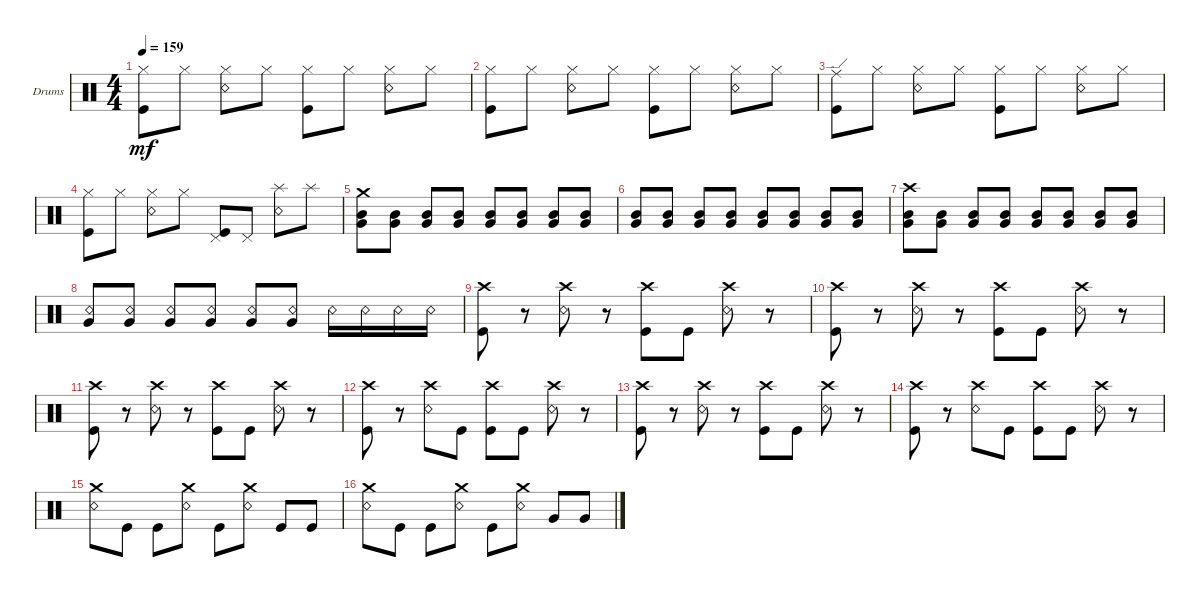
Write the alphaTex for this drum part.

\defaultSystemsLayout 4
\bracketExtendMode groupsimilarinstruments
\firstSystemTrackNameOrientation horizontal
\otherSystemsTrackNameOrientation horizontal
\track ("Drumkit" "Drums") {instrument percussion}
\staff {score}
\articulation defaults
\ts (4 4)
\tempo 159
\clef neutral
\ks c
("Hi-Hat (closed)" "Kick (hit)").8{dy mf} "Hi-Hat (closed)".8 ("Hi-Hat (closed)" "Snare (rim shot)").8 "Hi-Hat (closed)".8 ("Hi-Hat (closed)" "Kick (hit)").8 "Hi-Hat (closed)".8 ("Hi-Hat (closed)" "Snare (rim shot)").8 "Hi-Hat (closed)".8 |
("Hi-Hat (closed)" "Kick (hit)").8 "Hi-Hat (closed)".8 ("Hi-Hat (closed)" "Snare (rim shot)").8 "Hi-Hat (closed)".8 ("Hi-Hat (closed)" "Kick (hit)").8 "Hi-Hat (closed)".8 ("Hi-Hat (closed)" "Snare (rim shot)").8 "Hi-Hat (closed)".8 |
("Ride (edge)" "Kick (hit)").8 "Hi-Hat (closed)".8 ("Hi-Hat (closed)" "Snare (rim shot)").8 "Hi-Hat (closed)".8 ("Hi-Hat (closed)" "Kick (hit)").8 "Hi-Hat (closed)".8 ("Hi-Hat (closed)" "Snare (rim shot)").8 "Hi-Hat (closed)".8 |
("Hi-Hat (closed)" "Kick (hit)").8 "Hi-Hat (closed)".8 ("Hi-Hat (closed)" "Snare (rim shot)").8 "Hi-Hat (closed)".8 ("Kick (hit)" "Pedal Hi-Hat (hit)").8 "Pedal Hi-Hat (hit)".8 ("Snare (rim shot)" "Splash (hit)").8 "Splash (hit)".8 |
("Very Low Tom (hit)" "Mid Tom (hit)" "Crash medium (hit)").8 ("Very Low Tom (hit)" "Mid Tom (hit)").8 ("Very Low Tom (hit)" "Mid Tom (hit)").8 ("Very Low Tom (hit)" "Mid Tom (hit)").8 ("Very Low Tom (hit)" "Mid Tom (hit)").8 ("Very Low Tom (hit)" "Mid Tom (hit)").8 ("Very Low Tom (hit)" "Mid Tom (hit)").8 ("Very Low Tom (hit)" "Mid Tom (hit)").8 |
("Very Low Tom (hit)" "Mid Tom (hit)").8 ("Very Low Tom (hit)" "Mid Tom (hit)").8 ("Very Low Tom (hit)" "Mid Tom (hit)").8 ("Very Low Tom (hit)" "Mid Tom (hit)").8 ("Very Low Tom (hit)" "Mid Tom (hit)").8 ("Very Low Tom (hit)" "Mid Tom (hit)").8 ("Very Low Tom (hit)" "Mid Tom (hit)").8 ("Very Low Tom (hit)" "Mid Tom (hit)").8 |
("Very Low Tom (hit)" "Mid Tom (hit)" "Crash high (hit)").8 ("Very Low Tom (hit)" "Mid Tom (hit)").8 ("Very Low Tom (hit)" "Mid Tom (hit)").8 ("Very Low Tom (hit)" "Mid Tom (hit)").8 ("Very Low Tom (hit)" "Mid Tom (hit)").8 ("Very Low Tom (hit)" "Mid Tom (hit)").8 ("Very Low Tom (hit)" "Mid Tom (hit)").8 ("Very Low Tom (hit)" "Mid Tom (hit)").8 |
("Very Low Tom (hit)" "Snare (rim shot)").8 ("Very Low Tom (hit)" "Snare (rim shot)").8 ("Very Low Tom (hit)" "Snare (rim shot)").8 ("Very Low Tom (hit)" "Snare (rim shot)").8 ("Very Low Tom (hit)" "Snare (rim shot)").8 ("Very Low Tom (hit)" "Snare (rim shot)").8 "Snare (rim shot)".16 "Snare (rim shot)".16 "Snare (rim shot)".16 "Snare (rim shot)".16 |
("Crash high (hit)" "Kick (hit)").8 r.8 ("Crash high (hit)" "Snare (rim shot)").8 r.8 ("Crash high (hit)" "Kick (hit)").8 "Kick (hit)".8 ("Crash high (hit)" "Snare (rim shot)").8 r.8 |
("Crash high (hit)" "Kick (hit)").8 r.8 ("Crash high (hit)" "Snare (rim shot)").8 r.8 ("Crash high (hit)" "Kick (hit)").8 "Kick (hit)".8 ("Crash high (hit)" "Snare (rim shot)").8 r.8 |
("Crash high (hit)" "Kick (hit)").8 r.8 ("Crash high (hit)" "Snare (rim shot)").8 r.8 ("Crash high (hit)" "Kick (hit)").8 "Kick (hit)".8 ("Crash high (hit)" "Snare (rim shot)").8 r.8 |
("Crash high (hit)" "Kick (hit)").8 r.8 ("Crash high (hit)" "Snare (rim shot)").8 "Kick (hit)".8 ("Crash high (hit)" "Kick (hit)").8 "Kick (hit)".8 ("Crash high (hit)" "Snare (rim shot)").8 r.8 |
("Crash high (hit)" "Kick (hit)").8 r.8 ("Crash high (hit)" "Snare (rim shot)").8 r.8 ("Crash high (hit)" "Kick (hit)").8 "Kick (hit)".8 ("Crash high (hit)" "Snare (rim shot)").8 r.8 |
("Crash high (hit)" "Kick (hit)").8 r.8 ("Crash high (hit)" "Snare (rim shot)").8 "Kick (hit)".8 ("Crash high (hit)" "Kick (hit)").8 "Kick (hit)".8 ("Crash high (hit)" "Snare (rim shot)").8 r.8 |
("Snare (rim shot)" "Crash medium (hit)").8 "Kick (hit)".8 "Kick (hit)".8 ("Snare (rim shot)" "Crash medium (hit)").8 "Kick (hit)".8 ("Snare (rim shot)" "Crash medium (hit)").8 "Kick (hit)".8 "Kick (hit)".8 |
("Snare (rim shot)" "Crash medium (hit)").8 "Kick (hit)".8 "Kick (hit)".8 ("Snare (rim shot)" "Crash medium (hit)").8 "Kick (hit)".8 ("Snare (rim shot)" "Crash medium (hit)").8 "Very Low Tom (hit)".8 "Very Low Tom (hit)".8
